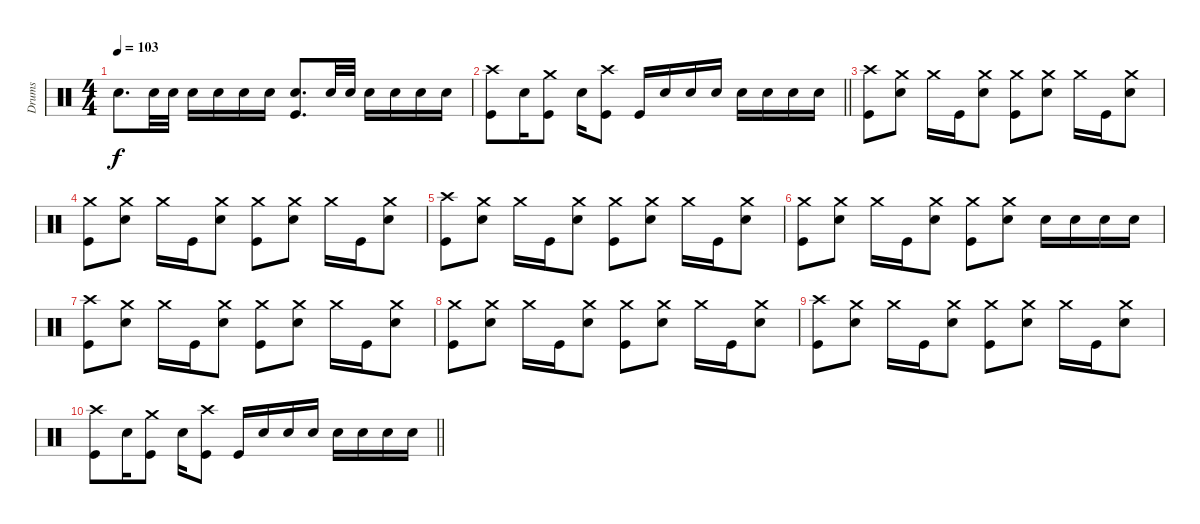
\track ("Drums" "Drums") {instrument percussion}
\staff
\articulation defaults
\ts (4 4)
\tempo 103
\clef neutral
\ks c "Electric Snare (hit)".8{d dy f} "Electric Snare (hit)".32 "Electric Snare (hit)".32 "Electric Snare (hit)".16 "Electric Snare (hit)".16 "Electric Snare (hit)".16 "Electric Snare (hit)".16
("Electric Snare (hit)" "Kick (hit)").8{d} "Electric Snare (hit)".32 "Electric Snare (hit)".32 "Electric Snare (hit)".16 "Electric Snare (hit)".16 "Electric Snare (hit)".16 "Electric Snare (hit)".16 |
\barLineRight lightlight
("Crash high (hit)" "Kick (hit)").8 "Electric Snare (hit)".16 ("Crash medium (hit)" "Kick (hit)").8 "Electric Snare (hit)".16 ("Crash high (hit)" "Kick (hit)").8 "Kick (hit)".16 "Electric Snare (hit)".16 "Electric Snare (hit)".16 "Electric Snare (hit)".16 "Electric Snare (hit)".16 "Electric Snare (hit)".16 "Electric Snare (hit)".16 "Electric Snare (hit)".16 |
("Crash high (hit)" "Kick (hit)").8 ("Crash medium (hit)" "Electric Snare (hit)").8 "Crash medium (hit)".16 "Kick (hit)".16 ("Crash medium (hit)" "Electric Snare (hit)").8 ("Crash medium (hit)" "Kick (hit)").8 ("Crash medium (hit)" "Electric Snare (hit)").8 "Crash medium (hit)".16 "Kick (hit)".16 ("Crash medium (hit)" "Electric Snare (hit)").8 |
("Crash medium (hit)" "Kick (hit)").8 ("Crash medium (hit)" "Electric Snare (hit)").8 "Crash medium (hit)".16 "Kick (hit)".16 ("Crash medium (hit)" "Electric Snare (hit)").8 ("Crash medium (hit)" "Kick (hit)").8 ("Crash medium (hit)" "Electric Snare (hit)").8 "Crash medium (hit)".16 "Kick (hit)".16 ("Crash medium (hit)" "Electric Snare (hit)").8 |
("Crash high (hit)" "Kick (hit)").8 ("Crash medium (hit)" "Electric Snare (hit)").8 "Crash medium (hit)".16 "Kick (hit)".16 ("Crash medium (hit)" "Electric Snare (hit)").8 ("Crash medium (hit)" "Kick (hit)").8 ("Crash medium (hit)" "Electric Snare (hit)").8 "Crash medium (hit)".16 "Kick (hit)".16 ("Crash medium (hit)" "Electric Snare (hit)").8 |
("Crash medium (hit)" "Kick (hit)").8 ("Crash medium (hit)" "Electric Snare (hit)").8 "Crash medium (hit)".16 "Kick (hit)".16 ("Crash medium (hit)" "Electric Snare (hit)").8 ("Crash medium (hit)" "Kick (hit)").8 ("Crash medium (hit)" "Electric Snare (hit)").8 "Electric Snare (hit)".16 "Electric Snare (hit)".16 "Electric Snare (hit)".16 "Electric Snare (hit)".16 |
("Crash high (hit)" "Kick (hit)").8 ("Crash medium (hit)" "Electric Snare (hit)").8 "Crash medium (hit)".16 "Kick (hit)".16 ("Crash medium (hit)" "Electric Snare (hit)").8 ("Crash medium (hit)" "Kick (hit)").8 ("Crash medium (hit)" "Electric Snare (hit)").8 "Crash medium (hit)".16 "Kick (hit)".16 ("Crash medium (hit)" "Electric Snare (hit)").8 |
("Crash medium (hit)" "Kick (hit)").8 ("Crash medium (hit)" "Electric Snare (hit)").8 "Crash medium (hit)".16 "Kick (hit)".16 ("Crash medium (hit)" "Electric Snare (hit)").8 ("Crash medium (hit)" "Kick (hit)").8 ("Crash medium (hit)" "Electric Snare (hit)").8 "Crash medium (hit)".16 "Kick (hit)".16 ("Crash medium (hit)" "Electric Snare (hit)").8 |
("Crash high (hit)" "Kick (hit)").8 ("Crash medium (hit)" "Electric Snare (hit)").8 "Crash medium (hit)".16 "Kick (hit)".16 ("Crash medium (hit)" "Electric Snare (hit)").8 ("Crash medium (hit)" "Kick (hit)").8 ("Crash medium (hit)" "Electric Snare (hit)").8 "Crash medium (hit)".16 "Kick (hit)".16 ("Crash medium (hit)" "Electric Snare (hit)").8 |
\barLineRight lightlight
("Crash high (hit)" "Kick (hit)").8 "Electric Snare (hit)".16 ("Crash medium (hit)" "Kick (hit)").8 "Electric Snare (hit)".16 ("Crash high (hit)" "Kick (hit)").8 "Kick (hit)".16 "Electric Snare (hit)".16 "Electric Snare (hit)".16 "Electric Snare (hit)".16 "Electric Snare (hit)".16 "Electric Snare (hit)".16 "Electric Snare (hit)".16 "Electric Snare (hit)".16
